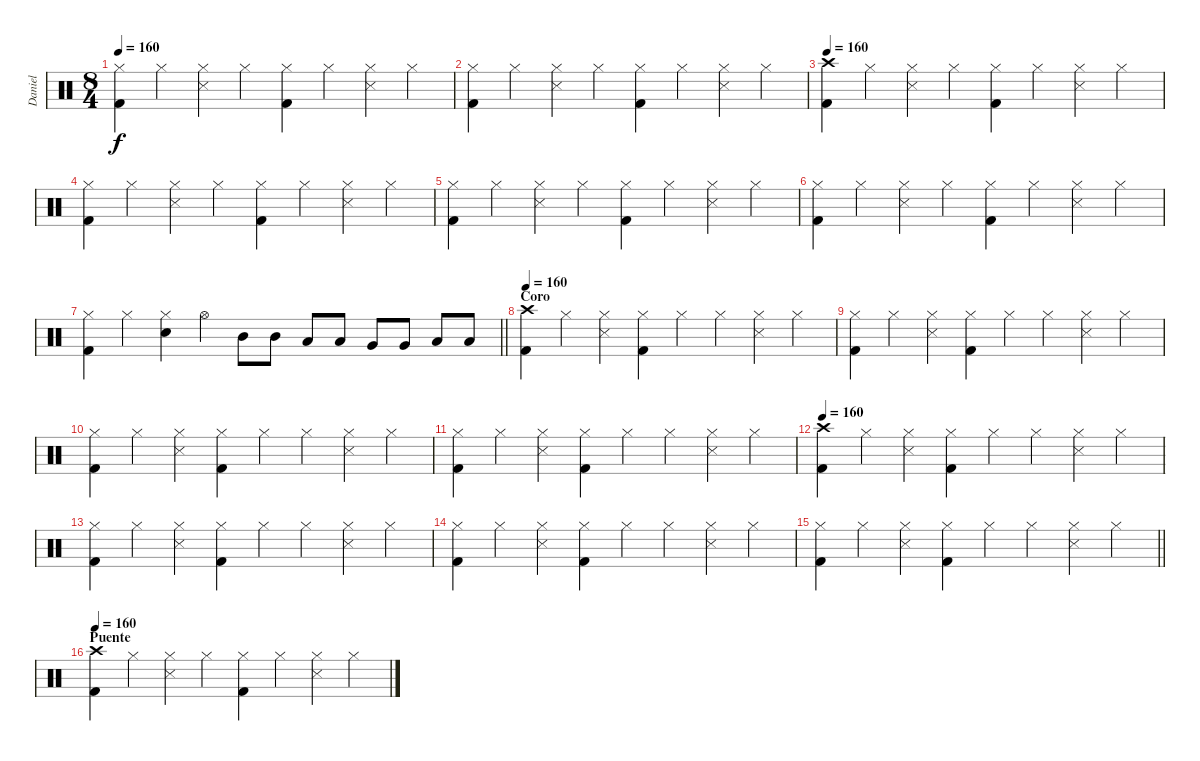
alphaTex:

\track ("Daniel" "Daniel") {instrument percussion}
\staff {score}
\articulation defaults
\ts (8 4)
\tempo 160
\clef neutral
\ks c
("Hi-Hat (closed)" "Kick (hit) 2").4{dy f} "Hi-Hat (closed)".4 ("Hi-Hat (closed)" "Snare (side stick) 3").4 "Hi-Hat (closed)".4 ("Hi-Hat (closed)" "Kick (hit) 2").4 "Hi-Hat (closed)".4 ("Hi-Hat (closed)" "Snare (side stick) 3").4 "Hi-Hat (closed)".4 |
("Hi-Hat (closed)" "Kick (hit) 2").4 "Hi-Hat (closed)".4 ("Hi-Hat (closed)" "Snare (side stick) 3").4 "Hi-Hat (closed)".4 ("Hi-Hat (closed)" "Kick (hit) 2").4 "Hi-Hat (closed)".4 ("Hi-Hat (closed)" "Snare (side stick) 3").4 "Hi-Hat (closed)".4 |
\tempo 160
("Crash high (hit)" "Kick (hit) 2").4 "Hi-Hat (closed)".4 ("Hi-Hat (closed)" "Snare (side stick) 3").4 "Hi-Hat (closed)".4 ("Hi-Hat (closed)" "Kick (hit) 2").4 "Hi-Hat (closed)".4 ("Hi-Hat (closed)" "Snare (side stick) 3").4 "Hi-Hat (closed)".4 |
("Hi-Hat (closed)" "Kick (hit) 2").4 "Hi-Hat (closed)".4 ("Hi-Hat (closed)" "Snare (side stick) 3").4 "Hi-Hat (closed)".4 ("Hi-Hat (closed)" "Kick (hit) 2").4 "Hi-Hat (closed)".4 ("Hi-Hat (closed)" "Snare (side stick) 3").4 "Hi-Hat (closed)".4 |
("Hi-Hat (closed)" "Kick (hit) 2").4 "Hi-Hat (closed)".4 ("Hi-Hat (closed)" "Snare (side stick) 3").4 "Hi-Hat (closed)".4 ("Hi-Hat (closed)" "Kick (hit) 2").4 "Hi-Hat (closed)".4 ("Hi-Hat (closed)" "Snare (side stick) 3").4 "Hi-Hat (closed)".4 |
("Hi-Hat (closed)" "Kick (hit) 2").4 "Hi-Hat (closed)".4 ("Hi-Hat (closed)" "Snare (side stick) 3").4 "Hi-Hat (closed)".4 ("Hi-Hat (closed)" "Kick (hit) 2").4 "Hi-Hat (closed)".4 ("Hi-Hat (closed)" "Snare (side stick) 3").4 "Hi-Hat (closed)".4 |
\barLineRight lightlight
("Hi-Hat (closed)" "Kick (hit) 2").4 "Hi-Hat (closed)".4 ("Hi-Hat (closed)" "Snare (hit) 2").4 "Hi-Hat (open)".4 "Mid Tom (hit)".8 "Mid Tom (hit)".8 "Low Tom (hit)".8 "Low Tom (hit)".8 "Very Low Tom (hit)".8 "Very Low Tom (hit)".8 "Low Floor Tom (hit)".8 "Low Floor Tom (hit)".8 |
\section ("" "Coro")
\tempo 160
("Crash high (hit)" "Kick (hit) 2").4 "Hi-Hat (closed)".4 ("Hi-Hat (closed)" "Snare (side stick) 3").4 ("Hi-Hat (closed)" "Kick (hit) 2").4 "Hi-Hat (closed)".4 "Hi-Hat (closed)".4 ("Hi-Hat (closed)" "Snare (side stick) 3").4 "Hi-Hat (closed)".4 |
("Hi-Hat (closed)" "Kick (hit) 2").4 "Hi-Hat (closed)".4 ("Hi-Hat (closed)" "Snare (side stick) 3").4 ("Hi-Hat (closed)" "Kick (hit) 2").4 "Hi-Hat (closed)".4 "Hi-Hat (closed)".4 ("Hi-Hat (closed)" "Snare (side stick) 3").4 "Hi-Hat (closed)".4 |
("Hi-Hat (closed)" "Kick (hit) 2").4 "Hi-Hat (closed)".4 ("Hi-Hat (closed)" "Snare (side stick) 3").4 ("Hi-Hat (closed)" "Kick (hit) 2").4 "Hi-Hat (closed)".4 "Hi-Hat (closed)".4 ("Hi-Hat (closed)" "Snare (side stick) 3").4 "Hi-Hat (closed)".4 |
("Hi-Hat (closed)" "Kick (hit) 2").4 "Hi-Hat (closed)".4 ("Hi-Hat (closed)" "Snare (side stick) 3").4 ("Hi-Hat (closed)" "Kick (hit) 2").4 "Hi-Hat (closed)".4 "Hi-Hat (closed)".4 ("Hi-Hat (closed)" "Snare (side stick) 3").4 "Hi-Hat (closed)".4 |
\tempo 160
("Crash high (hit)" "Kick (hit) 2").4 "Hi-Hat (closed)".4 ("Hi-Hat (closed)" "Snare (side stick) 3").4 ("Hi-Hat (closed)" "Kick (hit) 2").4 "Hi-Hat (closed)".4 "Hi-Hat (closed)".4 ("Hi-Hat (closed)" "Snare (side stick) 3").4 "Hi-Hat (closed)".4 |
("Hi-Hat (closed)" "Kick (hit) 2").4 "Hi-Hat (closed)".4 ("Hi-Hat (closed)" "Snare (side stick) 3").4 ("Hi-Hat (closed)" "Kick (hit) 2").4 "Hi-Hat (closed)".4 "Hi-Hat (closed)".4 ("Hi-Hat (closed)" "Snare (side stick) 3").4 "Hi-Hat (closed)".4 |
("Hi-Hat (closed)" "Kick (hit) 2").4 "Hi-Hat (closed)".4 ("Hi-Hat (closed)" "Snare (side stick) 3").4 ("Hi-Hat (closed)" "Kick (hit) 2").4 "Hi-Hat (closed)".4 "Hi-Hat (closed)".4 ("Hi-Hat (closed)" "Snare (side stick) 3").4 "Hi-Hat (closed)".4 |
\barLineRight lightlight
("Hi-Hat (closed)" "Kick (hit) 2").4 "Hi-Hat (closed)".4 ("Hi-Hat (closed)" "Snare (side stick) 3").4 ("Hi-Hat (closed)" "Kick (hit) 2").4 "Hi-Hat (closed)".4 "Hi-Hat (closed)".4 ("Hi-Hat (closed)" "Snare (side stick) 3").4 "Hi-Hat (closed)".4 |
\section ("" "Puente")
\tempo 160
("Crash high (hit)" "Kick (hit) 2").4 "Hi-Hat (closed)".4 ("Hi-Hat (closed)" "Snare (side stick) 3").4 "Hi-Hat (closed)".4 ("Hi-Hat (closed)" "Kick (hit) 2").4 "Hi-Hat (closed)".4 ("Hi-Hat (closed)" "Snare (side stick) 3").4 "Hi-Hat (closed)".4
